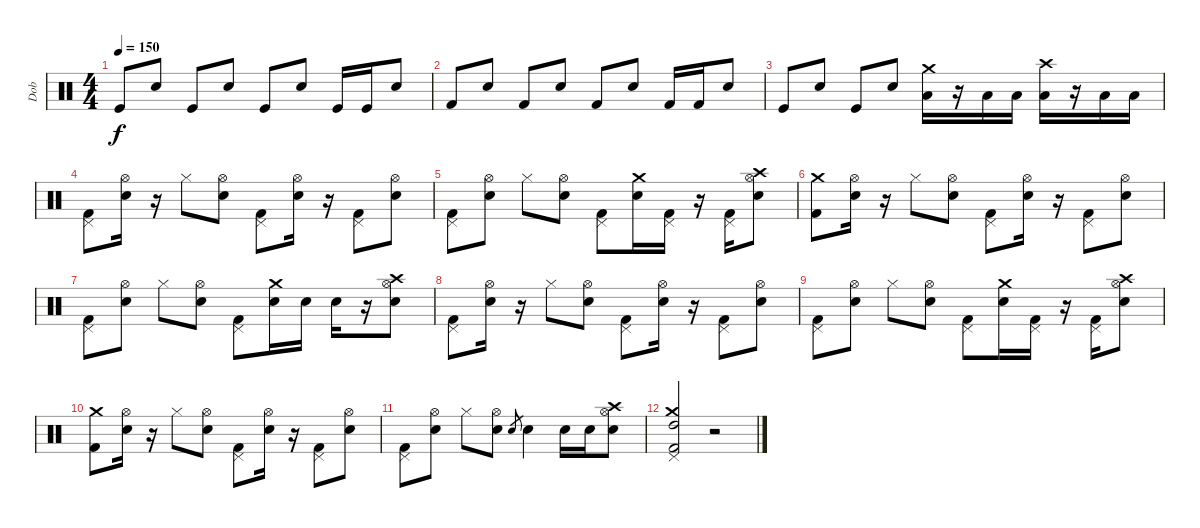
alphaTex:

\track ("Dob" "Dob") {instrument percussion}
\staff {score}
\articulation defaults
\ts (4 4)
\tempo 150
\clef neutral
\ks c "Kick (hit)".8{dy f} "Electric Snare (hit)".8 "Kick (hit)".8 "Electric Snare (hit)".8 "Kick (hit)".8 "Electric Snare (hit)".8 "Kick (hit)".16 "Kick (hit)".16 "Electric Snare (hit)".8
|
"Kick (hit) 2".8 "Snare (hit) 2".8 "Kick (hit) 2".8 "Snare (hit) 2".8 "Kick (hit) 2".8 "Snare (hit) 2".8 "Kick (hit) 2".16 "Kick (hit) 2".16 "Snare (hit) 2".8 |
"Kick (hit)".8 "Electric Snare (hit)".8 "Kick (hit)".8 "Electric Snare (hit)".8 ("Low Tom (hit)" "Crash medium (hit)").16 r.16 "Low Tom (hit)".16 "Low Tom (hit)".16 ("Low Floor Tom (hit)" "Crash high (hit)").16 r.16 "Low Floor Tom (hit)".16 "Low Floor Tom (hit)".16 |
("Kick (hit) 2" "Pedal Hi-Hat (hit)").8 ("Snare (hit) 2" "Hi-Hat (open)").16 r.16 "Hi-Hat (closed)".8 ("Snare (hit) 2" "Hi-Hat (open)").8 ("Kick (hit) 2" "Pedal Hi-Hat (hit)").8 ("Snare (hit) 2" "Hi-Hat (open)").16 r.16 ("Kick (hit) 2" "Pedal Hi-Hat (hit)").8 ("Snare (hit) 2" "Hi-Hat (open)").8 |
("Kick (hit) 2" "Pedal Hi-Hat (hit)").8 ("Snare (hit) 2" "Hi-Hat (open)").8 "Hi-Hat (closed)".8 ("Snare (hit) 2" "Hi-Hat (open)").8 ("Kick (hit) 2" "Pedal Hi-Hat (hit)").8 ("Snare (hit) 2" "Crash medium (hit)").16 ("Kick (hit) 2" "Pedal Hi-Hat (hit)").16 r.16 ("Kick (hit) 2" "Pedal Hi-Hat (hit)").16 ("Snare (hit) 2" "Hi-Hat (open)" "Crash high (hit)").8 |
("Kick (hit) 2" "Crash medium (hit)").8 ("Snare (hit) 2" "Hi-Hat (open)").16 r.16 "Hi-Hat (closed)".8 ("Snare (hit) 2" "Hi-Hat (open)").8 ("Kick (hit) 2" "Pedal Hi-Hat (hit)").8 ("Snare (hit) 2" "Hi-Hat (open)").16 r.16 ("Kick (hit) 2" "Pedal Hi-Hat (hit)").8 ("Snare (hit) 2" "Hi-Hat (open)").8 |
("Kick (hit) 2" "Pedal Hi-Hat (hit)").8 ("Snare (hit) 2" "Hi-Hat (open)").8 "Hi-Hat (closed)".8 ("Snare (hit) 2" "Hi-Hat (open)").8 ("Kick (hit) 2" "Pedal Hi-Hat (hit)").8 ("Snare (hit) 2" "Crash medium (hit)").16 "Snare (hit) 2".16 "Snare (hit) 2".16 r.16 ("Snare (hit) 2" "Hi-Hat (open)" "Crash high (hit)").8 |
("Kick (hit) 2" "Pedal Hi-Hat (hit)").8 ("Snare (hit) 2" "Hi-Hat (open)").16 r.16 "Hi-Hat (closed)".8 ("Snare (hit) 2" "Hi-Hat (open)").8 ("Kick (hit) 2" "Pedal Hi-Hat (hit)").8 ("Snare (hit) 2" "Hi-Hat (open)").16 r.16 ("Kick (hit) 2" "Pedal Hi-Hat (hit)").8 ("Snare (hit) 2" "Hi-Hat (open)").8 |
("Kick (hit) 2" "Pedal Hi-Hat (hit)").8 ("Snare (hit) 2" "Hi-Hat (open)").8 "Hi-Hat (closed)".8 ("Snare (hit) 2" "Hi-Hat (open)").8 ("Kick (hit) 2" "Pedal Hi-Hat (hit)").8 ("Snare (hit) 2" "Crash medium (hit)").16 ("Kick (hit) 2" "Pedal Hi-Hat (hit)").16 r.16 ("Kick (hit) 2" "Pedal Hi-Hat (hit)").16 ("Snare (hit) 2" "Hi-Hat (open)" "Crash high (hit)").8 |
("Kick (hit) 2" "Crash medium (hit)").8 ("Snare (hit) 2" "Hi-Hat (open)").16 r.16 "Hi-Hat (closed)".8 ("Snare (hit) 2" "Hi-Hat (open)").8 ("Kick (hit) 2" "Pedal Hi-Hat (hit)").8 ("Snare (hit) 2" "Hi-Hat (open)").16 r.16 ("Kick (hit) 2" "Pedal Hi-Hat (hit)").8 ("Snare (hit) 2" "Hi-Hat (open)").8 |
("Kick (hit) 2" "Pedal Hi-Hat (hit)").8 ("Snare (hit) 2" "Hi-Hat (open)").8 "Hi-Hat (closed)".8 ("Snare (hit) 2" "Hi-Hat (open)").8 "Snare (hit) 2".8{gr} "Snare (hit) 2".4 "Snare (hit) 2".16 "Snare (hit) 2".16 ("Snare (hit) 2" "Hi-Hat (open)" "Crash high (hit)").8 |
("Crash medium (hit)" "Kick (hit) 2" "High Tom (hit)" "Pedal Hi-Hat (hit)").2 r.2
